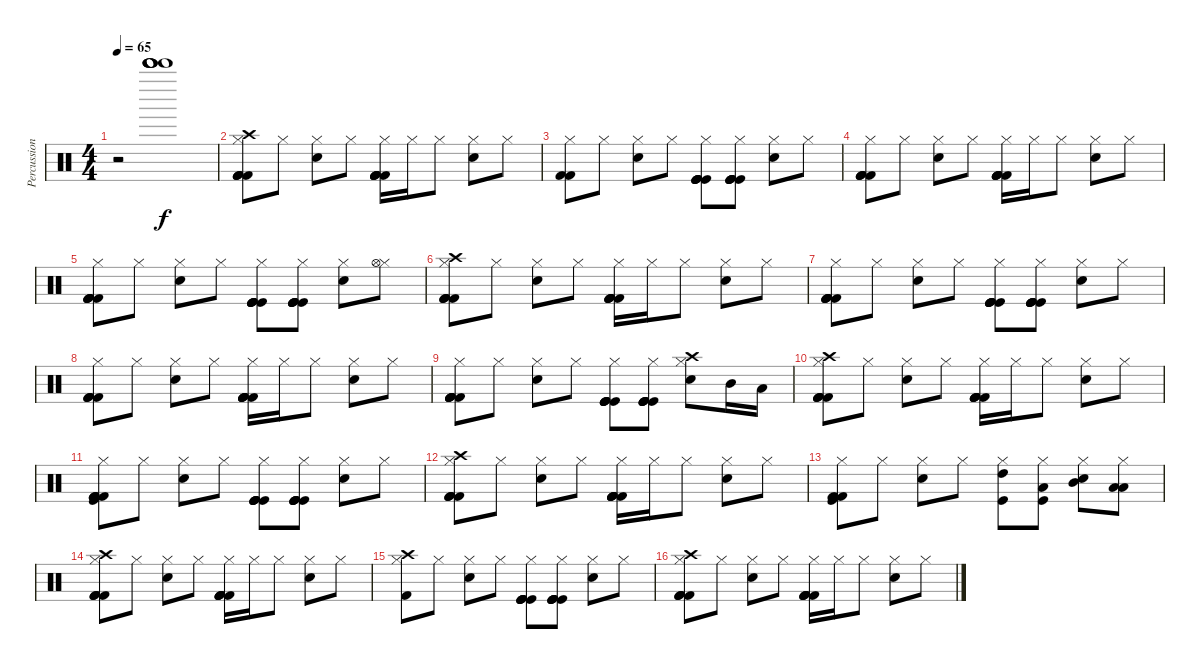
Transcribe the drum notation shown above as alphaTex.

\track ("Percussion" "Percussion") {instrument percussion}
\staff {score}
\articulation defaults
\ts (4 4)
\tempo 65
\clef neutral
\ks c
r.2{dy f} ("Bell Tree (hit)" "Bell Tree (hit)" "Bell Tree (hit)" "Bell Tree (hit)" "Bell Tree (hit)").1 |
("Kick (hit) 2" "Hi-Hat (closed)" "Crash high (hit)" "Kick (hit) 2" "Kick (hit) 2" "Kick (hit) 2").8 "Hi-Hat (closed)".8 ("Hi-Hat (closed)" "Snare (hit) 2").8 "Hi-Hat (closed)".8 ("Hi-Hat (closed)" "Kick (hit) 2" "Kick (hit) 2" "Kick (hit) 2" "Kick (hit) 2" "Kick (hit) 2").16 "Hi-Hat (closed)".16 "Hi-Hat (closed)".8 ("Hi-Hat (closed)" "Snare (hit) 2").8 "Hi-Hat (closed)".8 |
("Hi-Hat (closed)" "Kick (hit) 2" "Kick (hit) 2").8 "Hi-Hat (closed)".8 ("Hi-Hat (closed)" "Snare (hit) 2").8 "Hi-Hat (closed)".8 ("Hi-Hat (closed)" "Kick (hit)" "Kick (hit)" "Kick (hit)" "Kick (hit)" "Kick (hit)").8 ("Hi-Hat (closed)" "Kick (hit)" "Kick (hit)" "Kick (hit)" "Kick (hit)" "Kick (hit)").8 ("Hi-Hat (closed)" "Snare (hit) 2").8 "Hi-Hat (closed)".8 |
("Kick (hit) 2" "Hi-Hat (closed)" "Kick (hit) 2" "Kick (hit) 2" "Kick (hit) 2").8 "Hi-Hat (closed)".8 ("Hi-Hat (closed)" "Snare (hit) 2").8 "Hi-Hat (closed)".8 ("Hi-Hat (closed)" "Kick (hit) 2" "Kick (hit) 2" "Kick (hit) 2" "Kick (hit) 2" "Kick (hit) 2").16 "Hi-Hat (closed)".16 "Hi-Hat (closed)".8 ("Hi-Hat (closed)" "Snare (hit) 2").8 "Hi-Hat (closed)".8 |
("Hi-Hat (closed)" "Kick (hit) 2" "Kick (hit) 2" "Kick (hit) 2" "Kick (hit) 2" "Kick (hit) 2").8 "Hi-Hat (closed)".8 ("Hi-Hat (closed)" "Snare (hit) 2").8 "Hi-Hat (closed)".8 ("Hi-Hat (closed)" "Kick (hit)" "Kick (hit)" "Kick (hit)" "Kick (hit)" "Kick (hit)").8 ("Hi-Hat (closed)" "Kick (hit)" "Kick (hit)" "Kick (hit)" "Kick (hit)" "Kick (hit)").8 ("Hi-Hat (closed)" "Snare (hit) 2").8 ("Hi-Hat (closed)" "Hi-Hat (open)").8 |
("Kick (hit) 2" "Hi-Hat (closed)" "Crash high (hit)" "Kick (hit) 2" "Kick (hit) 2" "Kick (hit) 2").8 "Hi-Hat (closed)".8 ("Hi-Hat (closed)" "Snare (hit) 2").8 "Hi-Hat (closed)".8 ("Hi-Hat (closed)" "Kick (hit) 2" "Kick (hit) 2" "Kick (hit) 2" "Kick (hit) 2" "Kick (hit) 2").16 "Hi-Hat (closed)".16 "Hi-Hat (closed)".8 ("Hi-Hat (closed)" "Snare (hit) 2").8 "Hi-Hat (closed)".8 |
("Hi-Hat (closed)" "Kick (hit) 2" "Kick (hit) 2" "Kick (hit) 2" "Kick (hit) 2" "Kick (hit) 2").8 "Hi-Hat (closed)".8 ("Hi-Hat (closed)" "Snare (hit) 2").8 "Hi-Hat (closed)".8 ("Hi-Hat (closed)" "Kick (hit)" "Kick (hit)" "Kick (hit)" "Kick (hit)" "Kick (hit)").8 ("Hi-Hat (closed)" "Kick (hit)" "Kick (hit)" "Kick (hit)" "Kick (hit)" "Kick (hit)").8 ("Hi-Hat (closed)" "Snare (hit) 2").8 "Hi-Hat (closed)".8 |
("Kick (hit) 2" "Hi-Hat (closed)" "Kick (hit) 2" "Kick (hit) 2" "Kick (hit) 2").8 "Hi-Hat (closed)".8 ("Hi-Hat (closed)" "Snare (hit) 2").8 "Hi-Hat (closed)".8 ("Hi-Hat (closed)" "Kick (hit) 2" "Kick (hit) 2" "Kick (hit) 2" "Kick (hit) 2" "Kick (hit) 2").16 "Hi-Hat (closed)".16 "Hi-Hat (closed)".8 ("Hi-Hat (closed)" "Snare (hit) 2").8 "Hi-Hat (closed)".8 |
("Hi-Hat (closed)" "Kick (hit) 2" "Kick (hit) 2" "Kick (hit) 2" "Kick (hit) 2" "Kick (hit) 2").8 "Hi-Hat (closed)".8 ("Hi-Hat (closed)" "Snare (hit) 2").8 "Hi-Hat (closed)".8 ("Hi-Hat (closed)" "Kick (hit)" "Kick (hit)" "Kick (hit)" "Kick (hit)" "Kick (hit)").8 ("Hi-Hat (closed)" "Kick (hit)" "Kick (hit)" "Kick (hit)" "Kick (hit)" "Kick (hit)").8 ("Hi-Hat (closed)" "Snare (hit) 2" "Crash high (hit)").8 "Mid Tom (hit)".16 "Low Tom (hit)".16 |
("Kick (hit) 2" "Hi-Hat (closed)" "Crash high (hit)" "Kick (hit) 2" "Kick (hit) 2" "Kick (hit) 2").8 "Hi-Hat (closed)".8 ("Hi-Hat (closed)" "Snare (hit) 2").8 "Hi-Hat (closed)".8 ("Hi-Hat (closed)" "Kick (hit) 2" "Kick (hit) 2" "Kick (hit) 2" "Kick (hit) 2" "Kick (hit) 2").16 "Hi-Hat (closed)".16 "Hi-Hat (closed)".8 ("Hi-Hat (closed)" "Snare (hit) 2").8 "Hi-Hat (closed)".8 |
("Hi-Hat (closed)" "Kick (hit) 2" "Kick (hit) 2" "Kick (hit) 2" "Kick (hit) 2" "Kick (hit)").8 "Hi-Hat (closed)".8 ("Hi-Hat (closed)" "Snare (hit) 2").8 "Hi-Hat (closed)".8 ("Hi-Hat (closed)" "Kick (hit)" "Kick (hit)" "Kick (hit)" "Kick (hit)" "Kick (hit)").8 ("Hi-Hat (closed)" "Kick (hit)" "Kick (hit)" "Kick (hit)" "Kick (hit)" "Kick (hit)").8 ("Hi-Hat (closed)" "Snare (hit) 2").8 "Hi-Hat (closed)".8 |
("Kick (hit) 2" "Hi-Hat (closed)" "Crash high (hit)" "Kick (hit) 2" "Kick (hit) 2" "Kick (hit) 2").8 "Hi-Hat (closed)".8 ("Hi-Hat (closed)" "Snare (hit) 2").8 "Hi-Hat (closed)".8 ("Hi-Hat (closed)" "Kick (hit) 2" "Kick (hit) 2" "Kick (hit) 2" "Kick (hit) 2" "Kick (hit) 2").16 "Hi-Hat (closed)".16 "Hi-Hat (closed)".8 ("Hi-Hat (closed)" "Snare (hit) 2").8 "Hi-Hat (closed)".8 |
("Hi-Hat (closed)" "Kick (hit)" "Kick (hit) 2" "Kick (hit) 2").8 "Hi-Hat (closed)".8 ("Hi-Hat (closed)" "Snare (hit) 2").8 "Hi-Hat (closed)".8 ("Hi-Hat (closed)" "High Tom (hit)" "Kick (hit)").8 ("Hi-Hat (closed)" "Low Tom (hit)" "Kick (hit)").8 ("Hi-Hat (closed)" "Snare (hit) 2" "Mid Tom (hit)").8 ("Hi-Hat (closed)" "Low Tom (hit)" "Low Tom (hit)").8 |
("Kick (hit) 2" "Hi-Hat (closed)" "Crash high (hit)" "Kick (hit) 2" "Kick (hit) 2" "Kick (hit) 2").8 "Hi-Hat (closed)".8 ("Hi-Hat (closed)" "Snare (hit) 2").8 "Hi-Hat (closed)".8 ("Hi-Hat (closed)" "Kick (hit) 2" "Kick (hit) 2" "Kick (hit) 2" "Kick (hit) 2" "Kick (hit) 2").16 "Hi-Hat (closed)".16 "Hi-Hat (closed)".8 ("Hi-Hat (closed)" "Snare (hit) 2").8 "Hi-Hat (closed)".8 |
("Hi-Hat (closed)" "Kick (hit) 2" "Crash high (hit)").8 "Hi-Hat (closed)".8 ("Hi-Hat (closed)" "Snare (hit) 2").8 "Hi-Hat (closed)".8 ("Hi-Hat (closed)" "Kick (hit)" "Kick (hit)" "Kick (hit)" "Kick (hit)" "Kick (hit)").8 ("Hi-Hat (closed)" "Kick (hit)" "Kick (hit)" "Kick (hit)" "Kick (hit)" "Kick (hit)").8 ("Hi-Hat (closed)" "Snare (hit) 2").8 "Hi-Hat (closed)".8 |
("Kick (hit) 2" "Hi-Hat (closed)" "Crash high (hit)" "Kick (hit) 2" "Kick (hit) 2" "Kick (hit) 2").8 "Hi-Hat (closed)".8 ("Hi-Hat (closed)" "Snare (hit) 2").8 "Hi-Hat (closed)".8 ("Hi-Hat (closed)" "Kick (hit) 2" "Kick (hit) 2" "Kick (hit) 2" "Kick (hit) 2" "Kick (hit) 2").16 "Hi-Hat (closed)".16 "Hi-Hat (closed)".8 ("Hi-Hat (closed)" "Snare (hit) 2").8 "Hi-Hat (closed)".8
